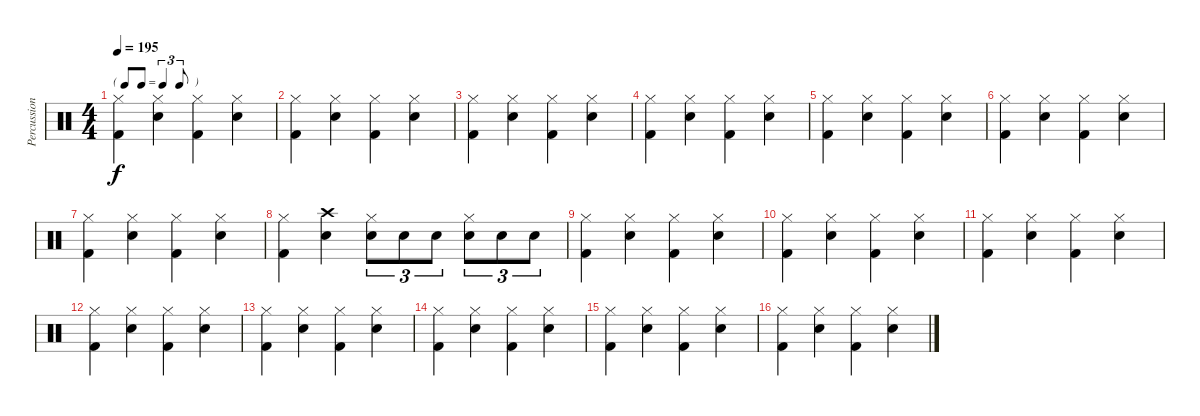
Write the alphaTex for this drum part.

\track ("Percussions" "Percussion") {instrument percussion}
\staff {score}
\articulation defaults
\ts (4 4)
\tf triplet8th
\tempo 195
\clef neutral
\ks c
("Hi-Hat (closed)" "Kick (hit) 2").4{dy f} ("Snare (hit) 2" "Hi-Hat (closed)").4 ("Hi-Hat (closed)" "Kick (hit) 2").4 ("Snare (hit) 2" "Hi-Hat (closed)").4 |
("Hi-Hat (closed)" "Kick (hit) 2").4 ("Snare (hit) 2" "Hi-Hat (closed)").4 ("Hi-Hat (closed)" "Kick (hit) 2").4 ("Snare (hit) 2" "Hi-Hat (closed)").4 |
("Hi-Hat (closed)" "Kick (hit) 2").4 ("Snare (hit) 2" "Hi-Hat (closed)").4 ("Hi-Hat (closed)" "Kick (hit) 2").4 ("Snare (hit) 2" "Hi-Hat (closed)").4 |
("Hi-Hat (closed)" "Kick (hit) 2").4 ("Snare (hit) 2" "Hi-Hat (closed)").4 ("Hi-Hat (closed)" "Kick (hit) 2").4 ("Snare (hit) 2" "Hi-Hat (closed)").4 |
("Hi-Hat (closed)" "Kick (hit) 2").4 ("Snare (hit) 2" "Hi-Hat (closed)").4 ("Hi-Hat (closed)" "Kick (hit) 2").4 ("Snare (hit) 2" "Hi-Hat (closed)").4 |
("Hi-Hat (closed)" "Kick (hit) 2").4 ("Snare (hit) 2" "Hi-Hat (closed)").4 ("Hi-Hat (closed)" "Kick (hit) 2").4 ("Snare (hit) 2" "Hi-Hat (closed)").4 |
("Hi-Hat (closed)" "Kick (hit) 2").4 ("Snare (hit) 2" "Hi-Hat (closed)").4 ("Hi-Hat (closed)" "Kick (hit) 2").4 ("Snare (hit) 2" "Hi-Hat (closed)").4 |
("Hi-Hat (closed)" "Kick (hit) 2").4 ("Snare (hit) 2" "Crash high (hit)").4 ("Snare (hit) 2" "Hi-Hat (closed)").8{tu (3 2)} "Snare (hit) 2".8{tu (3 2)} "Snare (hit) 2".8{tu (3 2)} ("Snare (hit) 2" "Hi-Hat (closed)").8{tu (3 2)} "Snare (hit) 2".8{tu (3 2)} "Snare (hit) 2".8{tu (3 2)} |
("Hi-Hat (closed)" "Kick (hit) 2").4 ("Snare (hit) 2" "Hi-Hat (closed)").4 ("Hi-Hat (closed)" "Kick (hit) 2").4 ("Snare (hit) 2" "Hi-Hat (closed)").4 |
("Hi-Hat (closed)" "Kick (hit) 2").4 ("Snare (hit) 2" "Hi-Hat (closed)").4 ("Hi-Hat (closed)" "Kick (hit) 2").4 ("Snare (hit) 2" "Hi-Hat (closed)").4 |
("Hi-Hat (closed)" "Kick (hit) 2").4 ("Snare (hit) 2" "Hi-Hat (closed)").4 ("Hi-Hat (closed)" "Kick (hit) 2").4 ("Snare (hit) 2" "Hi-Hat (closed)").4 |
("Hi-Hat (closed)" "Kick (hit) 2").4 ("Snare (hit) 2" "Hi-Hat (closed)").4 ("Hi-Hat (closed)" "Kick (hit) 2").4 ("Snare (hit) 2" "Hi-Hat (closed)").4 |
("Hi-Hat (closed)" "Kick (hit) 2").4 ("Snare (hit) 2" "Hi-Hat (closed)").4 ("Hi-Hat (closed)" "Kick (hit) 2").4 ("Snare (hit) 2" "Hi-Hat (closed)").4 |
("Hi-Hat (closed)" "Kick (hit) 2").4 ("Snare (hit) 2" "Hi-Hat (closed)").4 ("Hi-Hat (closed)" "Kick (hit) 2").4 ("Snare (hit) 2" "Hi-Hat (closed)").4 |
("Hi-Hat (closed)" "Kick (hit) 2").4 ("Snare (hit) 2" "Hi-Hat (closed)").4 ("Hi-Hat (closed)" "Kick (hit) 2").4 ("Snare (hit) 2" "Hi-Hat (closed)").4 |
("Hi-Hat (closed)" "Kick (hit) 2").4 ("Snare (hit) 2" "Hi-Hat (closed)").4 ("Hi-Hat (closed)" "Kick (hit) 2").4 ("Snare (hit) 2" "Hi-Hat (closed)").4
